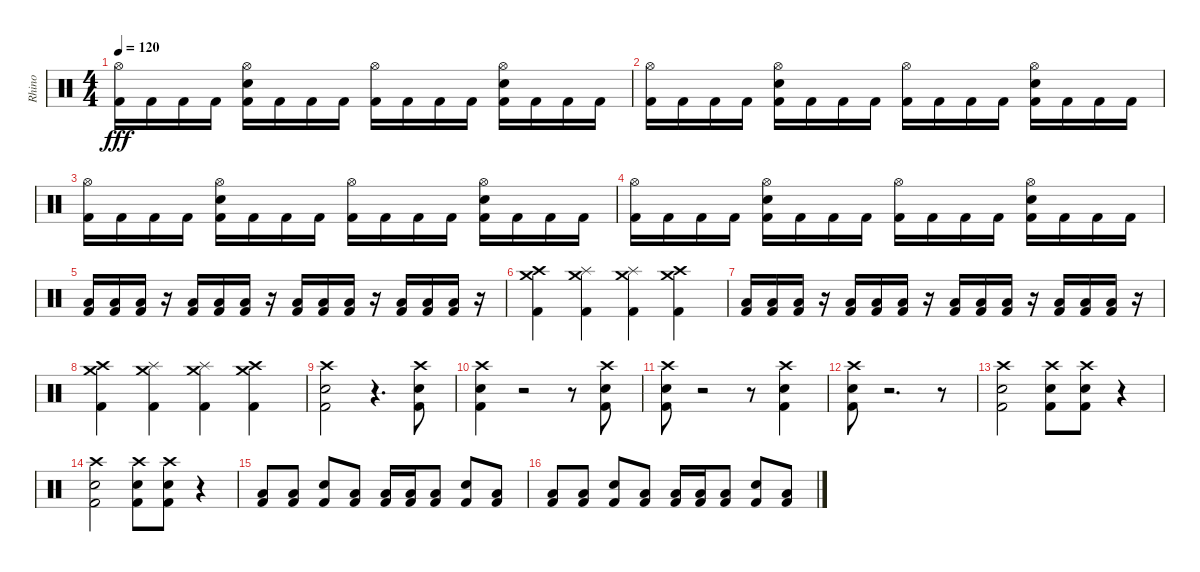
\track ("Rhino" "Rhino") {instrument percussion}
\staff {score}
\articulation defaults
\ts (4 4)
\tempo 120
\clef neutral
\ks c
("Hi-Hat (open)" "Kick (hit) 2").16{dy fff} "Kick (hit) 2".16 "Kick (hit) 2".16 "Kick (hit) 2".16 ("Hi-Hat (open)" "Snare (hit) 2" "Kick (hit) 2").16 "Kick (hit) 2".16 "Kick (hit) 2".16 "Kick (hit) 2".16 ("Hi-Hat (open)" "Kick (hit) 2").16 "Kick (hit) 2".16 "Kick (hit) 2".16 "Kick (hit) 2".16 ("Hi-Hat (open)" "Snare (hit) 2" "Kick (hit) 2").16 "Kick (hit) 2".16 "Kick (hit) 2".16 "Kick (hit) 2".16 |
("Hi-Hat (open)" "Kick (hit) 2").16 "Kick (hit) 2".16 "Kick (hit) 2".16 "Kick (hit) 2".16 ("Hi-Hat (open)" "Snare (hit) 2" "Kick (hit) 2").16 "Kick (hit) 2".16 "Kick (hit) 2".16 "Kick (hit) 2".16 ("Hi-Hat (open)" "Kick (hit) 2").16 "Kick (hit) 2".16 "Kick (hit) 2".16 "Kick (hit) 2".16 ("Hi-Hat (open)" "Snare (hit) 2" "Kick (hit) 2").16 "Kick (hit) 2".16 "Kick (hit) 2".16 "Kick (hit) 2".16 |
("Hi-Hat (open)" "Kick (hit) 2").16 "Kick (hit) 2".16 "Kick (hit) 2".16 "Kick (hit) 2".16 ("Hi-Hat (open)" "Snare (hit) 2" "Kick (hit) 2").16 "Kick (hit) 2".16 "Kick (hit) 2".16 "Kick (hit) 2".16 ("Hi-Hat (open)" "Kick (hit) 2").16 "Kick (hit) 2".16 "Kick (hit) 2".16 "Kick (hit) 2".16 ("Hi-Hat (open)" "Snare (hit) 2" "Kick (hit) 2").16 "Kick (hit) 2".16 "Kick (hit) 2".16 "Kick (hit) 2".16 |
("Hi-Hat (open)" "Kick (hit) 2").16 "Kick (hit) 2".16 "Kick (hit) 2".16 "Kick (hit) 2".16 ("Hi-Hat (open)" "Snare (hit) 2" "Kick (hit) 2").16 "Kick (hit) 2".16 "Kick (hit) 2".16 "Kick (hit) 2".16 ("Hi-Hat (open)" "Kick (hit) 2").16 "Kick (hit) 2".16 "Kick (hit) 2".16 "Kick (hit) 2".16 ("Hi-Hat (open)" "Snare (hit) 2" "Kick (hit) 2").16 "Kick (hit) 2".16 "Kick (hit) 2".16 "Kick (hit) 2".16 |
("Low Floor Tom (hit)" "Kick (hit) 2").16 ("Low Floor Tom (hit)" "Kick (hit) 2").16 ("Low Floor Tom (hit)" "Kick (hit) 2").16 r.16 ("Low Floor Tom (hit)" "Kick (hit) 2").16 ("Low Floor Tom (hit)" "Kick (hit) 2").16 ("Low Floor Tom (hit)" "Kick (hit) 2").16 r.16 ("Low Floor Tom (hit)" "Kick (hit) 2").16 ("Low Floor Tom (hit)" "Kick (hit) 2").16 ("Low Floor Tom (hit)" "Kick (hit) 2").16 r.16 ("Low Floor Tom (hit)" "Kick (hit) 2").16 ("Low Floor Tom (hit)" "Kick (hit) 2").16 ("Low Floor Tom (hit)" "Kick (hit) 2").16 r.16 |
("Crash high (hit)" "Crash medium (hit)" "Kick (hit) 2").4 ("Splash (hit)" "Crash medium (hit)" "Kick (hit) 2").4 ("Splash (hit)" "Crash medium (hit)" "Kick (hit) 2").4 ("Crash high (hit)" "Crash medium (hit)" "Kick (hit) 2").4 |
("Low Floor Tom (hit)" "Kick (hit) 2").16 ("Low Floor Tom (hit)" "Kick (hit) 2").16 ("Low Floor Tom (hit)" "Kick (hit) 2").16 r.16 ("Low Floor Tom (hit)" "Kick (hit) 2").16 ("Low Floor Tom (hit)" "Kick (hit) 2").16 ("Low Floor Tom (hit)" "Kick (hit) 2").16 r.16 ("Low Floor Tom (hit)" "Kick (hit) 2").16 ("Low Floor Tom (hit)" "Kick (hit) 2").16 ("Low Floor Tom (hit)" "Kick (hit) 2").16 r.16 ("Low Floor Tom (hit)" "Kick (hit) 2").16 ("Low Floor Tom (hit)" "Kick (hit) 2").16 ("Low Floor Tom (hit)" "Kick (hit) 2").16 r.16 |
("Crash high (hit)" "Crash medium (hit)" "Kick (hit) 2").4 ("Splash (hit)" "Crash medium (hit)" "Kick (hit) 2").4 ("Splash (hit)" "Crash medium (hit)" "Kick (hit) 2").4 ("Crash high (hit)" "Crash medium (hit)" "Kick (hit) 2").4 |
("Crash high (hit)" "Snare (hit) 2" "Kick (hit) 2").2 r.4{d} ("Crash high (hit)" "Snare (hit) 2" "Kick (hit) 2").8 |
("Crash high (hit)" "Snare (hit) 2" "Kick (hit) 2").4 r.2 r.8 ("Crash high (hit)" "Snare (hit) 2" "Kick (hit) 2").8 |
("Crash high (hit)" "Snare (hit) 2" "Kick (hit) 2").8 r.2 r.8 ("Crash high (hit)" "Snare (hit) 2" "Kick (hit) 2").4 |
("Crash high (hit)" "Snare (hit) 2" "Kick (hit) 2").8 r.2{d} r.8 |
("Crash high (hit)" "Snare (hit) 2" "Kick (hit) 2").2 ("Crash high (hit)" "Snare (hit) 2" "Kick (hit) 2").8 ("Crash high (hit)" "Snare (hit) 2" "Kick (hit) 2").8 r.4 |
("Crash high (hit)" "Snare (hit) 2" "Kick (hit) 2").2 ("Crash high (hit)" "Snare (hit) 2" "Kick (hit) 2").8 ("Crash high (hit)" "Snare (hit) 2" "Kick (hit) 2").8 r.4 |
("Low Floor Tom (hit)" "Kick (hit) 2").8 ("Low Floor Tom (hit)" "Kick (hit) 2").8 ("Snare (hit) 2" "Kick (hit) 2").8 ("Low Floor Tom (hit)" "Kick (hit) 2").8 ("Low Floor Tom (hit)" "Kick (hit) 2").16 ("Low Floor Tom (hit)" "Kick (hit) 2").16 ("Low Floor Tom (hit)" "Kick (hit) 2").8 ("Snare (hit) 2" "Kick (hit) 2").8 ("Low Floor Tom (hit)" "Kick (hit) 2").8 |
("Low Floor Tom (hit)" "Kick (hit) 2").8 ("Low Floor Tom (hit)" "Kick (hit) 2").8 ("Snare (hit) 2" "Kick (hit) 2").8 ("Low Floor Tom (hit)" "Kick (hit) 2").8 ("Low Floor Tom (hit)" "Kick (hit) 2").16 ("Low Floor Tom (hit)" "Kick (hit) 2").16 ("Low Floor Tom (hit)" "Kick (hit) 2").8 ("Snare (hit) 2" "Kick (hit) 2").8 ("Low Floor Tom (hit)" "Kick (hit) 2").8
